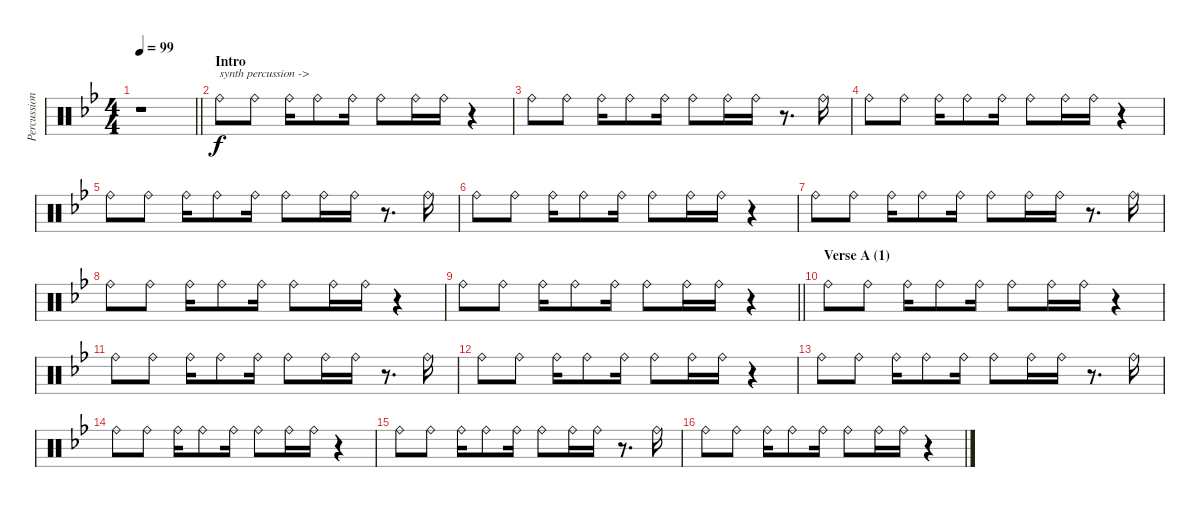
\track ("Percussion" "Percussion") {instrument percussion}
\staff {score}
\articulation defaults
\ts (4 4)
\tempo 99
\clef neutral
\barLineRight lightlight
\ks gminor
r.1{dy f} |
\section ("" "Intro")
"Ride (bell)".8{txt "synth percussion ->"} "Ride (bell)".8 "Ride (bell)".16 "Ride (bell)".8 "Ride (bell)".16 "Ride (bell)".8 "Ride (bell)".16 "Ride (bell)".16 r.4 |
"Ride (bell)".8 "Ride (bell)".8 "Ride (bell)".16 "Ride (bell)".8 "Ride (bell)".16 "Ride (bell)".8 "Ride (bell)".16 "Ride (bell)".16 r.8{d} "Ride (bell)".16 |
"Ride (bell)".8 "Ride (bell)".8 "Ride (bell)".16 "Ride (bell)".8 "Ride (bell)".16 "Ride (bell)".8 "Ride (bell)".16 "Ride (bell)".16 r.4 |
"Ride (bell)".8 "Ride (bell)".8 "Ride (bell)".16 "Ride (bell)".8 "Ride (bell)".16 "Ride (bell)".8 "Ride (bell)".16 "Ride (bell)".16 r.8{d} "Ride (bell)".16 |
"Ride (bell)".8 "Ride (bell)".8 "Ride (bell)".16 "Ride (bell)".8 "Ride (bell)".16 "Ride (bell)".8 "Ride (bell)".16 "Ride (bell)".16 r.4 |
"Ride (bell)".8 "Ride (bell)".8 "Ride (bell)".16 "Ride (bell)".8 "Ride (bell)".16 "Ride (bell)".8 "Ride (bell)".16 "Ride (bell)".16 r.8{d} "Ride (bell)".16 |
"Ride (bell)".8 "Ride (bell)".8 "Ride (bell)".16 "Ride (bell)".8 "Ride (bell)".16 "Ride (bell)".8 "Ride (bell)".16 "Ride (bell)".16 r.4 |
\barLineRight lightlight "Ride (bell)".8 "Ride (bell)".8 "Ride (bell)".16 "Ride (bell)".8 "Ride (bell)".16 "Ride (bell)".8 "Ride (bell)".16 "Ride (bell)".16
r.4 |
\section ("" "Verse A (1)")
"Ride (bell)".8 "Ride (bell)".8 "Ride (bell)".16 "Ride (bell)".8 "Ride (bell)".16 "Ride (bell)".8 "Ride (bell)".16 "Ride (bell)".16 r.4 |
"Ride (bell)".8 "Ride (bell)".8 "Ride (bell)".16 "Ride (bell)".8 "Ride (bell)".16 "Ride (bell)".8 "Ride (bell)".16 "Ride (bell)".16 r.8{d} "Ride (bell)".16 |
"Ride (bell)".8 "Ride (bell)".8 "Ride (bell)".16 "Ride (bell)".8 "Ride (bell)".16 "Ride (bell)".8 "Ride (bell)".16 "Ride (bell)".16 r.4 |
"Ride (bell)".8 "Ride (bell)".8 "Ride (bell)".16 "Ride (bell)".8 "Ride (bell)".16 "Ride (bell)".8 "Ride (bell)".16 "Ride (bell)".16 r.8{d} "Ride (bell)".16 |
"Ride (bell)".8 "Ride (bell)".8 "Ride (bell)".16 "Ride (bell)".8 "Ride (bell)".16 "Ride (bell)".8 "Ride (bell)".16 "Ride (bell)".16 r.4 |
"Ride (bell)".8 "Ride (bell)".8 "Ride (bell)".16 "Ride (bell)".8 "Ride (bell)".16 "Ride (bell)".8 "Ride (bell)".16 "Ride (bell)".16 r.8{d} "Ride (bell)".16 |
"Ride (bell)".8 "Ride (bell)".8 "Ride (bell)".16 "Ride (bell)".8 "Ride (bell)".16 "Ride (bell)".8 "Ride (bell)".16 "Ride (bell)".16 r.4
